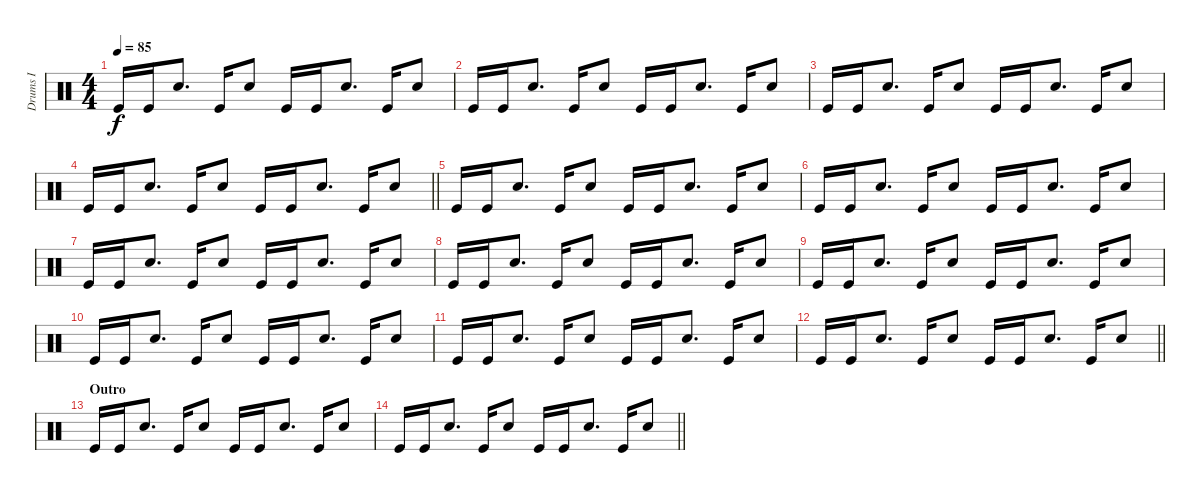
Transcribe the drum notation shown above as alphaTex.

\track ("Drums I" "Drums I") {instrument percussion}
\staff {score}
\articulation defaults
\ts (4 4)
\tempo 85
\clef neutral
\ks c "Kick (hit)".16{dy f} "Kick (hit)".16 "Electric Snare (hit)".8{d} "Kick (hit)".16 "Electric Snare (hit)".8 "Kick (hit)".16 "Kick (hit)".16 "Electric Snare (hit)".8{d} "Kick (hit)".16 "Electric Snare (hit)".8
|
"Kick (hit)".16 "Kick (hit)".16 "Electric Snare (hit)".8{d} "Kick (hit)".16 "Electric Snare (hit)".8 "Kick (hit)".16 "Kick (hit)".16 "Electric Snare (hit)".8{d} "Kick (hit)".16 "Electric Snare (hit)".8 |
"Kick (hit)".16 "Kick (hit)".16 "Electric Snare (hit)".8{d} "Kick (hit)".16 "Electric Snare (hit)".8 "Kick (hit)".16 "Kick (hit)".16 "Electric Snare (hit)".8{d} "Kick (hit)".16 "Electric Snare (hit)".8 |
\barLineRight lightlight "Kick (hit)".16 "Kick (hit)".16 "Electric Snare (hit)".8{d} "Kick (hit)".16 "Electric Snare (hit)".8 "Kick (hit)".16 "Kick (hit)".16 "Electric Snare (hit)".8{d} "Kick (hit)".16 "Electric Snare (hit)".8
|
"Kick (hit)".16 "Kick (hit)".16 "Electric Snare (hit)".8{d} "Kick (hit)".16 "Electric Snare (hit)".8 "Kick (hit)".16 "Kick (hit)".16 "Electric Snare (hit)".8{d} "Kick (hit)".16 "Electric Snare (hit)".8 |
"Kick (hit)".16 "Kick (hit)".16 "Electric Snare (hit)".8{d} "Kick (hit)".16 "Electric Snare (hit)".8 "Kick (hit)".16 "Kick (hit)".16 "Electric Snare (hit)".8{d} "Kick (hit)".16 "Electric Snare (hit)".8 |
"Kick (hit)".16 "Kick (hit)".16 "Electric Snare (hit)".8{d} "Kick (hit)".16 "Electric Snare (hit)".8 "Kick (hit)".16 "Kick (hit)".16 "Electric Snare (hit)".8{d} "Kick (hit)".16 "Electric Snare (hit)".8 |
"Kick (hit)".16 "Kick (hit)".16 "Electric Snare (hit)".8{d} "Kick (hit)".16 "Electric Snare (hit)".8 "Kick (hit)".16 "Kick (hit)".16 "Electric Snare (hit)".8{d} "Kick (hit)".16 "Electric Snare (hit)".8 |
"Kick (hit)".16 "Kick (hit)".16 "Electric Snare (hit)".8{d} "Kick (hit)".16 "Electric Snare (hit)".8 "Kick (hit)".16 "Kick (hit)".16 "Electric Snare (hit)".8{d} "Kick (hit)".16 "Electric Snare (hit)".8 |
"Kick (hit)".16 "Kick (hit)".16 "Electric Snare (hit)".8{d} "Kick (hit)".16 "Electric Snare (hit)".8 "Kick (hit)".16 "Kick (hit)".16 "Electric Snare (hit)".8{d} "Kick (hit)".16 "Electric Snare (hit)".8 |
"Kick (hit)".16 "Kick (hit)".16 "Electric Snare (hit)".8{d} "Kick (hit)".16 "Electric Snare (hit)".8 "Kick (hit)".16 "Kick (hit)".16 "Electric Snare (hit)".8{d} "Kick (hit)".16 "Electric Snare (hit)".8 |
\barLineRight lightlight "Kick (hit)".16 "Kick (hit)".16 "Electric Snare (hit)".8{d} "Kick (hit)".16 "Electric Snare (hit)".8 "Kick (hit)".16 "Kick (hit)".16 "Electric Snare (hit)".8{d} "Kick (hit)".16 "Electric Snare (hit)".8
|
\section ("" "Outro")
"Kick (hit)".16 "Kick (hit)".16 "Electric Snare (hit)".8{d} "Kick (hit)".16 "Electric Snare (hit)".8 "Kick (hit)".16 "Kick (hit)".16 "Electric Snare (hit)".8{d} "Kick (hit)".16 "Electric Snare (hit)".8 |
\barLineRight lightlight "Kick (hit)".16 "Kick (hit)".16 "Electric Snare (hit)".8{d} "Kick (hit)".16 "Electric Snare (hit)".8 "Kick (hit)".16 "Kick (hit)".16 "Electric Snare (hit)".8{d} "Kick (hit)".16 "Electric Snare (hit)".8
